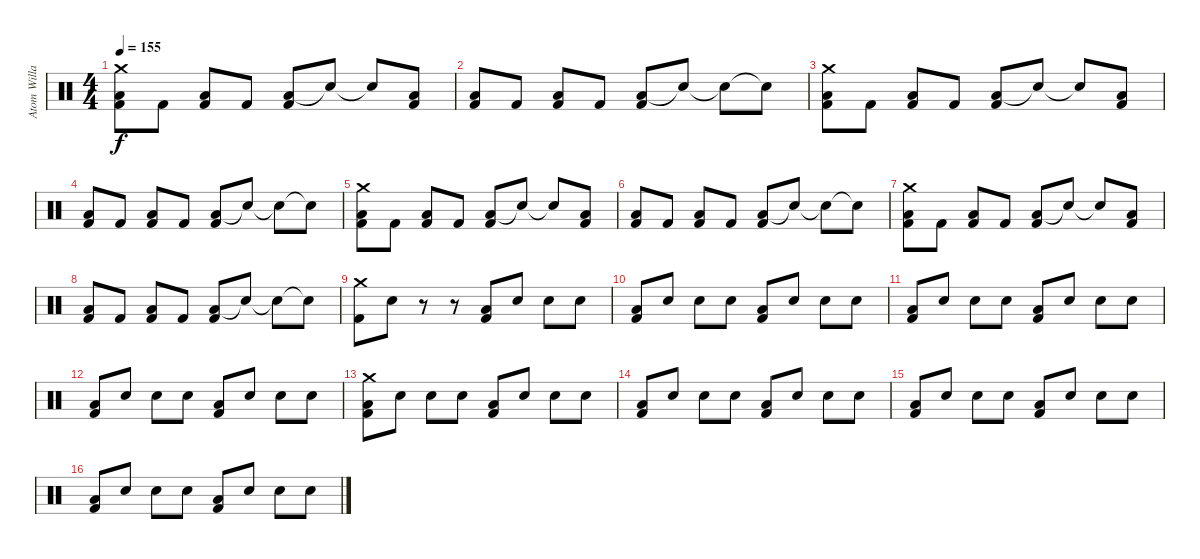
\track ("Atom Willard Drums" "Atom Willa") {instrument percussion}
\staff {score}
\articulation defaults
\ts (4 4)
\tempo 155
\clef neutral
\ks c
("Crash medium (hit)" "Low Tom (hit)" "Kick (hit) 2").8{dy f} "Kick (hit) 2".8 ("Low Tom (hit)" "Kick (hit) 2").8 "Kick (hit) 2".8 ("Low Tom (hit)" "Kick (hit) 2").8 "Snare (hit)"{t}.8 "Snare (hit)"{t}.8 ("Low Tom (hit)" "Kick (hit) 2").8 |
("Low Tom (hit)" "Kick (hit) 2").8 "Kick (hit) 2".8 ("Low Tom (hit)" "Kick (hit) 2").8 "Kick (hit) 2".8 ("Low Tom (hit)" "Kick (hit) 2").8 "Snare (hit)"{t}.8 "Snare (hit)"{t}.8 "Snare (hit)"{t}.8 |
("Crash medium (hit)" "Low Tom (hit)" "Kick (hit) 2").8 "Kick (hit) 2".8 ("Low Tom (hit)" "Kick (hit) 2").8 "Kick (hit) 2".8 ("Low Tom (hit)" "Kick (hit) 2").8 "Snare (hit)"{t}.8 "Snare (hit)"{t}.8 ("Low Tom (hit)" "Kick (hit) 2").8 |
("Low Tom (hit)" "Kick (hit) 2").8 "Kick (hit) 2".8 ("Low Tom (hit)" "Kick (hit) 2").8 "Kick (hit) 2".8 ("Low Tom (hit)" "Kick (hit) 2").8 "Snare (hit)"{t}.8 "Snare (hit)"{t}.8 "Snare (hit)"{t}.8 |
("Crash medium (hit)" "Low Tom (hit)" "Kick (hit) 2").8 "Kick (hit) 2".8 ("Low Tom (hit)" "Kick (hit) 2").8 "Kick (hit) 2".8 ("Low Tom (hit)" "Kick (hit) 2").8 "Snare (hit)"{t}.8 "Snare (hit)"{t}.8 ("Low Tom (hit)" "Kick (hit) 2").8 |
("Low Tom (hit)" "Kick (hit) 2").8 "Kick (hit) 2".8 ("Low Tom (hit)" "Kick (hit) 2").8 "Kick (hit) 2".8 ("Low Tom (hit)" "Kick (hit) 2").8 "Snare (hit)"{t}.8 "Snare (hit)"{t}.8 "Snare (hit)"{t}.8 |
("Crash medium (hit)" "Low Tom (hit)" "Kick (hit) 2").8 "Kick (hit) 2".8 ("Low Tom (hit)" "Kick (hit) 2").8 "Kick (hit) 2".8 ("Low Tom (hit)" "Kick (hit) 2").8 "Snare (hit)"{t}.8 "Snare (hit)"{t}.8 ("Low Tom (hit)" "Kick (hit) 2").8 |
("Low Tom (hit)" "Kick (hit) 2").8 "Kick (hit) 2".8 ("Low Tom (hit)" "Kick (hit) 2").8 "Kick (hit) 2".8 ("Low Tom (hit)" "Kick (hit) 2").8 "Snare (hit)"{t}.8 "Snare (hit)"{t}.8 "Snare (hit)"{t}.8 |
("Crash medium (hit)" "Kick (hit) 2").8 "Snare (hit)".8 r.8 r.8 ("Kick (hit) 2" "Low Tom (hit)").8 "Snare (hit)".8 "Snare (hit)".8 "Snare (hit)".8 |
("Kick (hit) 2" "Low Tom (hit)").8 "Snare (hit)".8 "Snare (hit)".8 "Snare (hit)".8 ("Kick (hit) 2" "Low Tom (hit)").8 "Snare (hit)".8 "Snare (hit)".8 "Snare (hit)".8 |
("Kick (hit) 2" "Low Tom (hit)").8 "Snare (hit)".8 "Snare (hit)".8 "Snare (hit)".8 ("Kick (hit) 2" "Low Tom (hit)").8 "Snare (hit)".8 "Snare (hit)".8 "Snare (hit)".8 |
("Kick (hit) 2" "Low Tom (hit)").8 "Snare (hit)".8 "Snare (hit)".8 "Snare (hit)".8 ("Kick (hit) 2" "Low Tom (hit)").8 "Snare (hit)".8 "Snare (hit)".8 "Snare (hit)".8 |
("Crash medium (hit)" "Kick (hit) 2" "Low Tom (hit)").8 "Snare (hit)".8 "Snare (hit)".8 "Snare (hit)".8 ("Kick (hit) 2" "Low Tom (hit)").8 "Snare (hit)".8 "Snare (hit)".8 "Snare (hit)".8 |
("Kick (hit) 2" "Low Tom (hit)").8 "Snare (hit)".8 "Snare (hit)".8 "Snare (hit)".8 ("Kick (hit) 2" "Low Tom (hit)").8 "Snare (hit)".8 "Snare (hit)".8 "Snare (hit)".8 |
("Kick (hit) 2" "Low Tom (hit)").8 "Snare (hit)".8 "Snare (hit)".8 "Snare (hit)".8 ("Kick (hit) 2" "Low Tom (hit)").8 "Snare (hit)".8 "Snare (hit)".8 "Snare (hit)".8 |
("Kick (hit) 2" "Low Tom (hit)").8 "Snare (hit)".8 "Snare (hit)".8 "Snare (hit)".8 ("Kick (hit) 2" "Low Tom (hit)").8 "Snare (hit)".8 "Snare (hit)".8 "Snare (hit)".8
